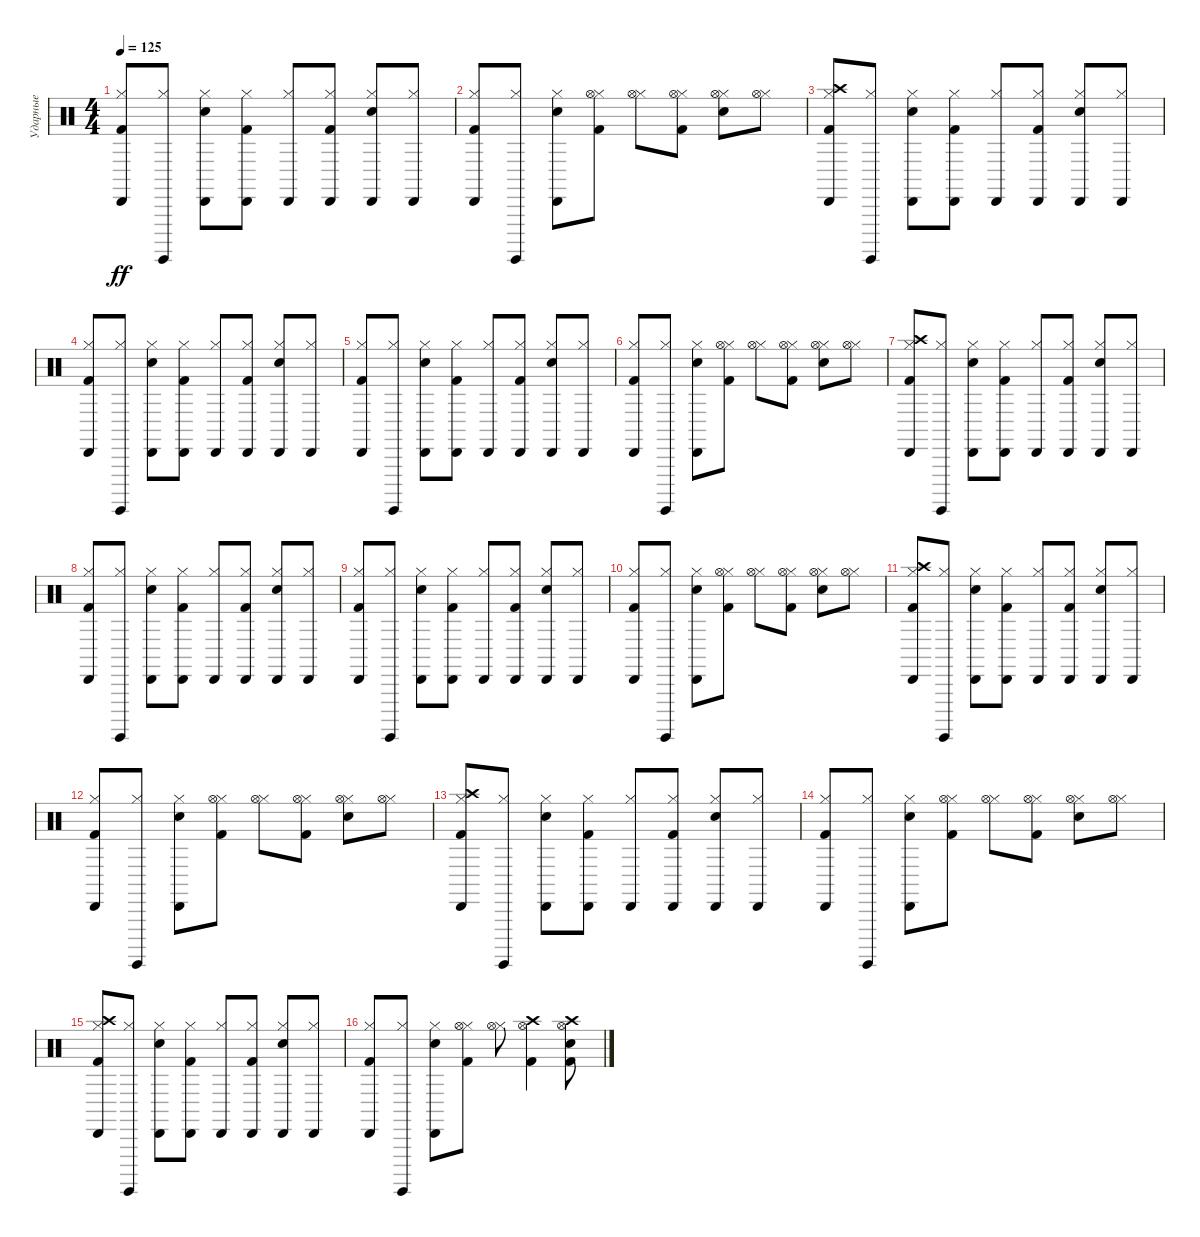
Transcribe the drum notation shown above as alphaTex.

\track ("Ударные" "Ударные") {instrument percussion}
\staff {score}
\articulation defaults
\ts (4 4)
\tempo 125
\clef neutral
\ks c
("Hi-Hat (closed)" "Cabasa (hit)" "Kick (hit) 2").8{dy ff} ("Hi-Hat (closed)" "Surdo (hit)").8 ("Hi-Hat (closed)" "Cabasa (hit)" "Snare (hit) 2").8 ("Hi-Hat (closed)" "Cabasa (hit)" "Kick (hit) 2").8 ("Hi-Hat (closed)" "Cabasa (hit)").8 ("Hi-Hat (closed)" "Cabasa (hit)" "Kick (hit) 2").8 ("Hi-Hat (closed)" "Cabasa (hit)" "Snare (hit) 2").8 ("Hi-Hat (closed)" "Cabasa (hit)").8 |
("Hi-Hat (closed)" "Cabasa (hit)" "Kick (hit) 2").8 ("Hi-Hat (closed)" "Surdo (hit)").8 ("Hi-Hat (closed)" "Cabasa (hit)" "Snare (hit) 2").8 ("Hi-Hat (closed)" "Hi-Hat (open)" "Kick (hit) 2").8 ("Hi-Hat (closed)" "Hi-Hat (open)").8 ("Hi-Hat (closed)" "Hi-Hat (open)" "Kick (hit) 2").8 ("Hi-Hat (closed)" "Hi-Hat (open)" "Snare (hit) 2").8 ("Hi-Hat (closed)" "Hi-Hat (open)").8 |
("Crash high (hit)" "Hi-Hat (closed)" "Cabasa (hit)" "Kick (hit) 2").8 ("Hi-Hat (closed)" "Surdo (hit)").8 ("Hi-Hat (closed)" "Cabasa (hit)" "Snare (hit) 2").8 ("Hi-Hat (closed)" "Cabasa (hit)" "Kick (hit) 2").8 ("Hi-Hat (closed)" "Cabasa (hit)").8 ("Hi-Hat (closed)" "Cabasa (hit)" "Kick (hit) 2").8 ("Hi-Hat (closed)" "Cabasa (hit)" "Snare (hit) 2").8 ("Hi-Hat (closed)" "Cabasa (hit)").8 |
("Hi-Hat (closed)" "Cabasa (hit)" "Kick (hit) 2").8 ("Hi-Hat (closed)" "Surdo (hit)").8 ("Hi-Hat (closed)" "Cabasa (hit)" "Snare (hit) 2").8 ("Hi-Hat (closed)" "Cabasa (hit)" "Kick (hit) 2").8 ("Hi-Hat (closed)" "Cabasa (hit)").8 ("Hi-Hat (closed)" "Cabasa (hit)" "Kick (hit) 2").8 ("Hi-Hat (closed)" "Cabasa (hit)" "Snare (hit) 2").8 ("Hi-Hat (closed)" "Cabasa (hit)").8 |
("Hi-Hat (closed)" "Cabasa (hit)" "Kick (hit) 2").8 ("Hi-Hat (closed)" "Surdo (hit)").8 ("Hi-Hat (closed)" "Cabasa (hit)" "Snare (hit) 2").8 ("Hi-Hat (closed)" "Cabasa (hit)" "Kick (hit) 2").8 ("Hi-Hat (closed)" "Cabasa (hit)").8 ("Hi-Hat (closed)" "Cabasa (hit)" "Kick (hit) 2").8 ("Hi-Hat (closed)" "Cabasa (hit)" "Snare (hit) 2").8 ("Hi-Hat (closed)" "Cabasa (hit)").8 |
("Hi-Hat (closed)" "Cabasa (hit)" "Kick (hit) 2").8 ("Hi-Hat (closed)" "Surdo (hit)").8 ("Hi-Hat (closed)" "Cabasa (hit)" "Snare (hit) 2").8 ("Hi-Hat (closed)" "Hi-Hat (open)" "Kick (hit) 2").8 ("Hi-Hat (closed)" "Hi-Hat (open)").8 ("Hi-Hat (closed)" "Hi-Hat (open)" "Kick (hit) 2").8 ("Hi-Hat (closed)" "Hi-Hat (open)" "Snare (hit) 2").8 ("Hi-Hat (closed)" "Hi-Hat (open)").8 |
("Crash high (hit)" "Hi-Hat (closed)" "Cabasa (hit)" "Kick (hit) 2").8 ("Hi-Hat (closed)" "Surdo (hit)").8 ("Hi-Hat (closed)" "Cabasa (hit)" "Snare (hit) 2").8 ("Hi-Hat (closed)" "Cabasa (hit)" "Kick (hit) 2").8 ("Hi-Hat (closed)" "Cabasa (hit)").8 ("Hi-Hat (closed)" "Cabasa (hit)" "Kick (hit) 2").8 ("Hi-Hat (closed)" "Cabasa (hit)" "Snare (hit) 2").8 ("Hi-Hat (closed)" "Cabasa (hit)").8 |
("Hi-Hat (closed)" "Cabasa (hit)" "Kick (hit) 2").8 ("Hi-Hat (closed)" "Surdo (hit)").8 ("Hi-Hat (closed)" "Cabasa (hit)" "Snare (hit) 2").8 ("Hi-Hat (closed)" "Cabasa (hit)" "Kick (hit) 2").8 ("Hi-Hat (closed)" "Cabasa (hit)").8 ("Hi-Hat (closed)" "Cabasa (hit)" "Kick (hit) 2").8 ("Hi-Hat (closed)" "Cabasa (hit)" "Snare (hit) 2").8 ("Hi-Hat (closed)" "Cabasa (hit)").8 |
("Hi-Hat (closed)" "Cabasa (hit)" "Kick (hit) 2").8 ("Hi-Hat (closed)" "Surdo (hit)").8 ("Hi-Hat (closed)" "Cabasa (hit)" "Snare (hit) 2").8 ("Hi-Hat (closed)" "Cabasa (hit)" "Kick (hit) 2").8 ("Hi-Hat (closed)" "Cabasa (hit)").8 ("Hi-Hat (closed)" "Cabasa (hit)" "Kick (hit) 2").8 ("Hi-Hat (closed)" "Cabasa (hit)" "Snare (hit) 2").8 ("Hi-Hat (closed)" "Cabasa (hit)").8 |
("Hi-Hat (closed)" "Cabasa (hit)" "Kick (hit) 2").8 ("Hi-Hat (closed)" "Surdo (hit)").8 ("Hi-Hat (closed)" "Cabasa (hit)" "Snare (hit) 2").8 ("Hi-Hat (closed)" "Hi-Hat (open)" "Kick (hit) 2").8 ("Hi-Hat (closed)" "Hi-Hat (open)").8 ("Hi-Hat (closed)" "Hi-Hat (open)" "Kick (hit) 2").8 ("Hi-Hat (closed)" "Hi-Hat (open)" "Snare (hit) 2").8 ("Hi-Hat (closed)" "Hi-Hat (open)").8 |
("Crash high (hit)" "Hi-Hat (closed)" "Cabasa (hit)" "Kick (hit) 2").8 ("Hi-Hat (closed)" "Surdo (hit)").8 ("Hi-Hat (closed)" "Cabasa (hit)" "Snare (hit) 2").8 ("Hi-Hat (closed)" "Cabasa (hit)" "Kick (hit) 2").8 ("Hi-Hat (closed)" "Cabasa (hit)").8 ("Hi-Hat (closed)" "Cabasa (hit)" "Kick (hit) 2").8 ("Hi-Hat (closed)" "Cabasa (hit)" "Snare (hit) 2").8 ("Hi-Hat (closed)" "Cabasa (hit)").8 |
("Hi-Hat (closed)" "Cabasa (hit)" "Kick (hit) 2").8 ("Hi-Hat (closed)" "Surdo (hit)").8 ("Hi-Hat (closed)" "Cabasa (hit)" "Snare (hit) 2").8 ("Hi-Hat (closed)" "Hi-Hat (open)" "Kick (hit) 2").8 ("Hi-Hat (closed)" "Hi-Hat (open)").8 ("Hi-Hat (closed)" "Hi-Hat (open)" "Kick (hit) 2").8 ("Hi-Hat (closed)" "Hi-Hat (open)" "Snare (hit) 2").8 ("Hi-Hat (closed)" "Hi-Hat (open)").8 |
("Crash high (hit)" "Hi-Hat (closed)" "Cabasa (hit)" "Kick (hit) 2").8 ("Hi-Hat (closed)" "Surdo (hit)").8 ("Hi-Hat (closed)" "Cabasa (hit)" "Snare (hit) 2").8 ("Hi-Hat (closed)" "Cabasa (hit)" "Kick (hit) 2").8 ("Hi-Hat (closed)" "Cabasa (hit)").8 ("Hi-Hat (closed)" "Cabasa (hit)" "Kick (hit) 2").8 ("Hi-Hat (closed)" "Cabasa (hit)" "Snare (hit) 2").8 ("Hi-Hat (closed)" "Cabasa (hit)").8 |
("Hi-Hat (closed)" "Cabasa (hit)" "Kick (hit) 2").8 ("Hi-Hat (closed)" "Surdo (hit)").8 ("Hi-Hat (closed)" "Cabasa (hit)" "Snare (hit) 2").8 ("Hi-Hat (closed)" "Hi-Hat (open)" "Kick (hit) 2").8 ("Hi-Hat (closed)" "Hi-Hat (open)").8 ("Hi-Hat (closed)" "Hi-Hat (open)" "Kick (hit) 2").8 ("Hi-Hat (closed)" "Hi-Hat (open)" "Snare (hit) 2").8 ("Hi-Hat (closed)" "Hi-Hat (open)").8 |
("Crash high (hit)" "Hi-Hat (closed)" "Cabasa (hit)" "Kick (hit) 2").8 ("Hi-Hat (closed)" "Surdo (hit)").8 ("Hi-Hat (closed)" "Cabasa (hit)" "Snare (hit) 2").8 ("Hi-Hat (closed)" "Cabasa (hit)" "Kick (hit) 2").8 ("Hi-Hat (closed)" "Cabasa (hit)").8 ("Hi-Hat (closed)" "Cabasa (hit)" "Kick (hit) 2").8 ("Hi-Hat (closed)" "Cabasa (hit)" "Snare (hit) 2").8 ("Hi-Hat (closed)" "Cabasa (hit)").8 |
("Hi-Hat (closed)" "Cabasa (hit)" "Kick (hit) 2").8 ("Hi-Hat (closed)" "Surdo (hit)").8 ("Hi-Hat (closed)" "Cabasa (hit)" "Snare (hit) 2").8 ("Hi-Hat (closed)" "Hi-Hat (open)" "Kick (hit) 2").8 ("Hi-Hat (closed)" "Hi-Hat (open)").8 ("Crash high (hit)" "Hi-Hat (open)" "Kick (hit) 2").4 ("Crash high (hit)" "Hi-Hat (open)" "Snare (hit) 2" "Kick (hit) 2").8
